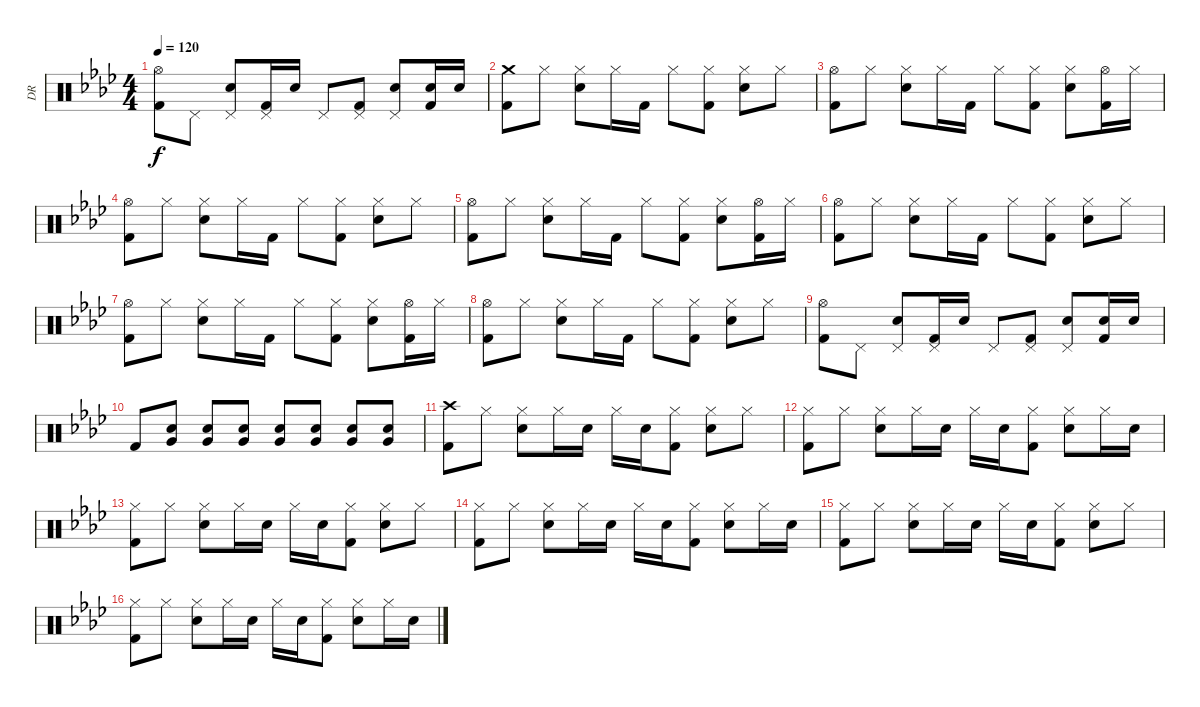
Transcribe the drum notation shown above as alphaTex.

\track ("DR" "DR") {instrument percussion}
\staff {score}
\articulation defaults
\ts (4 4)
\tempo 120
\clef neutral
\ks ab
("Hi-Hat (open)" "Kick (hit) 2").8{dy f} "Pedal Hi-Hat (hit)".8 ("Pedal Hi-Hat (hit)" "Electric Snare (hit)").8 ("Pedal Hi-Hat (hit)" "Kick (hit) 2").16 "Electric Snare (hit)".16 "Pedal Hi-Hat (hit)".8 ("Pedal Hi-Hat (hit)" "Kick (hit) 2").8 ("Pedal Hi-Hat (hit)" "Electric Snare (hit)").8 ("Electric Snare (hit)" "Kick (hit) 2").16 "Electric Snare (hit)".16 |
("Crash medium (hit)" "Kick (hit) 2").8 "Hi-Hat (closed)".8 ("Hi-Hat (closed)" "Electric Snare (hit)").8 "Hi-Hat (closed)".16 "Kick (hit) 2".16 "Hi-Hat (closed)".8 ("Hi-Hat (closed)" "Kick (hit) 2").8 ("Hi-Hat (closed)" "Electric Snare (hit)").8 "Hi-Hat (closed)".8 |
("Hi-Hat (open)" "Kick (hit) 2").8 "Hi-Hat (closed)".8 ("Hi-Hat (closed)" "Electric Snare (hit)").8 "Hi-Hat (closed)".16 "Kick (hit) 2".16 "Hi-Hat (closed)".8 ("Hi-Hat (closed)" "Kick (hit) 2").8 ("Hi-Hat (closed)" "Electric Snare (hit)").8 ("Hi-Hat (open)" "Kick (hit) 2").16 "Hi-Hat (closed)".16 |
("Hi-Hat (open)" "Kick (hit) 2").8 "Hi-Hat (closed)".8 ("Hi-Hat (closed)" "Electric Snare (hit)").8 "Hi-Hat (closed)".16 "Kick (hit) 2".16 "Hi-Hat (closed)".8 ("Hi-Hat (closed)" "Kick (hit) 2").8 ("Hi-Hat (closed)" "Electric Snare (hit)").8 "Hi-Hat (closed)".8 |
("Hi-Hat (open)" "Kick (hit) 2").8 "Hi-Hat (closed)".8 ("Hi-Hat (closed)" "Electric Snare (hit)").8 "Hi-Hat (closed)".16 "Kick (hit) 2".16 "Hi-Hat (closed)".8 ("Hi-Hat (closed)" "Kick (hit) 2").8 ("Hi-Hat (closed)" "Electric Snare (hit)").8 ("Hi-Hat (open)" "Kick (hit) 2").16 "Hi-Hat (closed)".16 |
("Hi-Hat (open)" "Kick (hit) 2").8 "Hi-Hat (closed)".8 ("Hi-Hat (closed)" "Electric Snare (hit)").8 "Hi-Hat (closed)".16 "Kick (hit) 2".16 "Hi-Hat (closed)".8 ("Hi-Hat (closed)" "Kick (hit) 2").8 ("Hi-Hat (closed)" "Electric Snare (hit)").8 "Hi-Hat (closed)".8 |
("Hi-Hat (open)" "Kick (hit) 2").8 "Hi-Hat (closed)".8 ("Hi-Hat (closed)" "Electric Snare (hit)").8 "Hi-Hat (closed)".16 "Kick (hit) 2".16 "Hi-Hat (closed)".8 ("Hi-Hat (closed)" "Kick (hit) 2").8 ("Hi-Hat (closed)" "Electric Snare (hit)").8 ("Hi-Hat (open)" "Kick (hit) 2").16 "Hi-Hat (closed)".16 |
("Hi-Hat (open)" "Kick (hit) 2").8 "Hi-Hat (closed)".8 ("Hi-Hat (closed)" "Electric Snare (hit)").8 "Hi-Hat (closed)".16 "Kick (hit) 2".16 "Hi-Hat (closed)".8 ("Hi-Hat (closed)" "Kick (hit) 2").8 ("Hi-Hat (closed)" "Electric Snare (hit)").8 "Hi-Hat (closed)".8 |
("Hi-Hat (open)" "Kick (hit) 2").8 "Pedal Hi-Hat (hit)".8 ("Pedal Hi-Hat (hit)" "Electric Snare (hit)").8 ("Pedal Hi-Hat (hit)" "Kick (hit) 2").16 "Electric Snare (hit)".16 "Pedal Hi-Hat (hit)".8 ("Pedal Hi-Hat (hit)" "Kick (hit) 2").8 ("Pedal Hi-Hat (hit)" "Electric Snare (hit)").8 ("Electric Snare (hit)" "Kick (hit) 2").16 "Electric Snare (hit)".16 |
"Kick (hit) 2".8 ("Very Low Tom (hit)" "Electric Snare (hit)").8 ("Very Low Tom (hit)" "Electric Snare (hit)").8 ("Very Low Tom (hit)" "Electric Snare (hit)").8 ("Very Low Tom (hit)" "Electric Snare (hit)").8 ("Very Low Tom (hit)" "Electric Snare (hit)").8 ("Very Low Tom (hit)" "Electric Snare (hit)").8 ("Very Low Tom (hit)" "Electric Snare (hit)").8 |
("Crash high (hit)" "Kick (hit) 2").8 "Hi-Hat (closed)".8 ("Hi-Hat (closed)" "Electric Snare (hit)").8 "Hi-Hat (closed)".16 "Electric Snare (hit)".16 "Hi-Hat (closed)".16 "Electric Snare (hit)".16 ("Hi-Hat (closed)" "Kick (hit) 2").8 ("Hi-Hat (closed)" "Electric Snare (hit)").8 "Hi-Hat (closed)".8 |
("Hi-Hat (closed)" "Kick (hit) 2").8 "Hi-Hat (closed)".8 ("Hi-Hat (closed)" "Electric Snare (hit)").8 "Hi-Hat (closed)".16 "Electric Snare (hit)".16 "Hi-Hat (closed)".16 "Electric Snare (hit)".16 ("Hi-Hat (closed)" "Kick (hit) 2").8 ("Hi-Hat (closed)" "Electric Snare (hit)").8 "Hi-Hat (closed)".16 "Electric Snare (hit)".16 |
("Hi-Hat (closed)" "Kick (hit) 2").8 "Hi-Hat (closed)".8 ("Hi-Hat (closed)" "Electric Snare (hit)").8 "Hi-Hat (closed)".16 "Electric Snare (hit)".16 "Hi-Hat (closed)".16 "Electric Snare (hit)".16 ("Hi-Hat (closed)" "Kick (hit) 2").8 ("Hi-Hat (closed)" "Electric Snare (hit)").8 "Hi-Hat (closed)".8 |
("Hi-Hat (closed)" "Kick (hit) 2").8 "Hi-Hat (closed)".8 ("Hi-Hat (closed)" "Electric Snare (hit)").8 "Hi-Hat (closed)".16 "Electric Snare (hit)".16 "Hi-Hat (closed)".16 "Electric Snare (hit)".16 ("Hi-Hat (closed)" "Kick (hit) 2").8 ("Hi-Hat (closed)" "Electric Snare (hit)").8 "Hi-Hat (closed)".16 "Electric Snare (hit)".16 |
("Hi-Hat (closed)" "Kick (hit) 2").8 "Hi-Hat (closed)".8 ("Hi-Hat (closed)" "Electric Snare (hit)").8 "Hi-Hat (closed)".16 "Electric Snare (hit)".16 "Hi-Hat (closed)".16 "Electric Snare (hit)".16 ("Hi-Hat (closed)" "Kick (hit) 2").8 ("Hi-Hat (closed)" "Electric Snare (hit)").8 "Hi-Hat (closed)".8 |
("Hi-Hat (closed)" "Kick (hit) 2").8 "Hi-Hat (closed)".8 ("Hi-Hat (closed)" "Electric Snare (hit)").8 "Hi-Hat (closed)".16 "Electric Snare (hit)".16 "Hi-Hat (closed)".16 "Electric Snare (hit)".16 ("Hi-Hat (closed)" "Kick (hit) 2").8 ("Hi-Hat (closed)" "Electric Snare (hit)").8 "Hi-Hat (closed)".16 "Electric Snare (hit)".16
